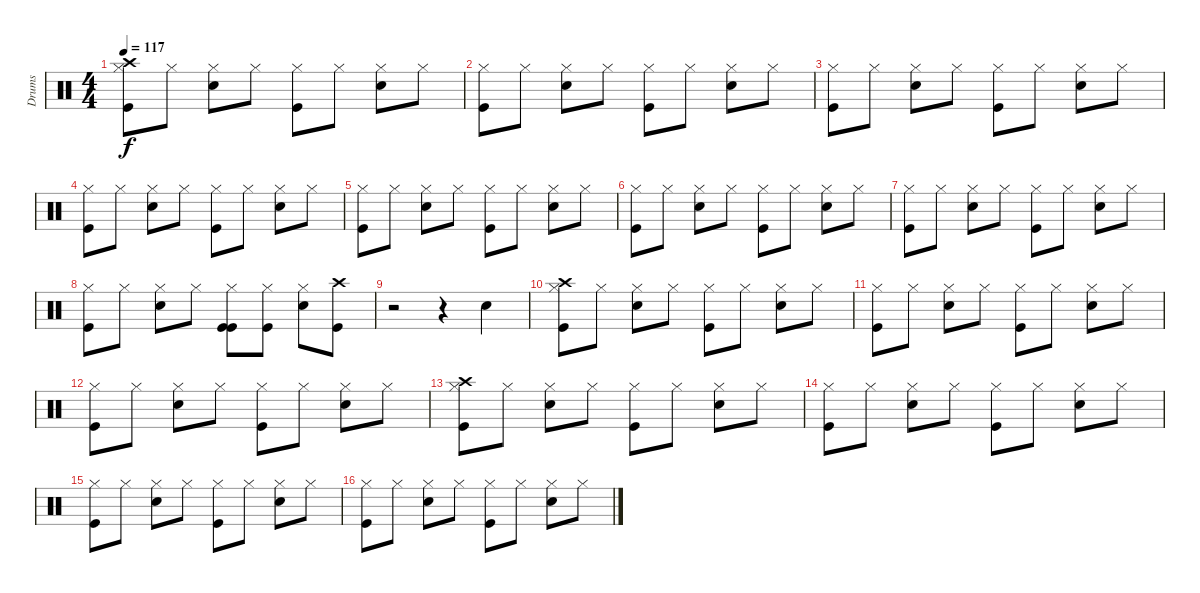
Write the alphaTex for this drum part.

\track ("Drums" "Drums") {instrument percussion}
\staff {score}
\articulation defaults
\ts (4 4)
\tempo 117
\clef neutral
\ks c
("Kick (hit)" "Hi-Hat (closed)" "Crash high (hit)").8{dy f} "Hi-Hat (closed)".8 ("Hi-Hat (closed)" "Snare (hit) 2").8 "Hi-Hat (closed)".8 ("Kick (hit)" "Hi-Hat (closed)").8 "Hi-Hat (closed)".8 ("Hi-Hat (closed)" "Snare (hit) 2").8 "Hi-Hat (closed)".8 |
("Kick (hit)" "Hi-Hat (closed)").8 "Hi-Hat (closed)".8 ("Hi-Hat (closed)" "Snare (hit) 2").8 "Hi-Hat (closed)".8 ("Kick (hit)" "Hi-Hat (closed)").8 "Hi-Hat (closed)".8 ("Hi-Hat (closed)" "Snare (hit) 2").8 "Hi-Hat (closed)".8 |
("Kick (hit)" "Hi-Hat (closed)").8 "Hi-Hat (closed)".8 ("Hi-Hat (closed)" "Snare (hit) 2").8 "Hi-Hat (closed)".8 ("Kick (hit)" "Hi-Hat (closed)").8 "Hi-Hat (closed)".8 ("Hi-Hat (closed)" "Snare (hit) 2").8 "Hi-Hat (closed)".8 |
("Kick (hit)" "Hi-Hat (closed)").8 "Hi-Hat (closed)".8 ("Hi-Hat (closed)" "Snare (hit) 2").8 "Hi-Hat (closed)".8 ("Kick (hit)" "Hi-Hat (closed)").8 "Hi-Hat (closed)".8 ("Hi-Hat (closed)" "Snare (hit) 2").8 "Hi-Hat (closed)".8 |
("Kick (hit)" "Hi-Hat (closed)").8 "Hi-Hat (closed)".8 ("Hi-Hat (closed)" "Snare (hit) 2").8 "Hi-Hat (closed)".8 ("Kick (hit)" "Hi-Hat (closed)").8 "Hi-Hat (closed)".8 ("Hi-Hat (closed)" "Snare (hit) 2").8 "Hi-Hat (closed)".8 |
("Kick (hit)" "Hi-Hat (closed)").8 "Hi-Hat (closed)".8 ("Hi-Hat (closed)" "Snare (hit) 2").8 "Hi-Hat (closed)".8 ("Kick (hit)" "Hi-Hat (closed)").8 "Hi-Hat (closed)".8 ("Hi-Hat (closed)" "Snare (hit) 2").8 "Hi-Hat (closed)".8 |
("Kick (hit)" "Hi-Hat (closed)").8 "Hi-Hat (closed)".8 ("Hi-Hat (closed)" "Snare (hit) 2").8 "Hi-Hat (closed)".8 ("Kick (hit)" "Hi-Hat (closed)").8 "Hi-Hat (closed)".8 ("Hi-Hat (closed)" "Snare (hit) 2").8 "Hi-Hat (closed)".8 |
("Kick (hit)" "Hi-Hat (closed)").8 "Hi-Hat (closed)".8 ("Hi-Hat (closed)" "Snare (hit) 2").8 "Hi-Hat (closed)".8 ("Kick (hit)" "Kick (hit)" "Hi-Hat (closed)").8 ("Kick (hit)" "Hi-Hat (closed)").8 ("Hi-Hat (closed)" "Snare (hit) 2").8 ("Kick (hit)" "Crash high (hit)").8 |
r.2 r.4 "Snare (hit) 2".4 |
("Kick (hit)" "Hi-Hat (closed)" "Crash high (hit)").8 "Hi-Hat (closed)".8 ("Hi-Hat (closed)" "Snare (hit) 2").8 "Hi-Hat (closed)".8 ("Kick (hit)" "Hi-Hat (closed)").8 "Hi-Hat (closed)".8 ("Hi-Hat (closed)" "Snare (hit) 2").8 "Hi-Hat (closed)".8 |
("Kick (hit)" "Hi-Hat (closed)").8 "Hi-Hat (closed)".8 ("Hi-Hat (closed)" "Snare (hit) 2").8 "Hi-Hat (closed)".8 ("Kick (hit)" "Hi-Hat (closed)").8 "Hi-Hat (closed)".8 ("Hi-Hat (closed)" "Snare (hit) 2").8 "Hi-Hat (closed)".8 |
("Kick (hit)" "Hi-Hat (closed)").8 "Hi-Hat (closed)".8 ("Hi-Hat (closed)" "Snare (hit) 2").8 "Hi-Hat (closed)".8 ("Kick (hit)" "Hi-Hat (closed)").8 "Hi-Hat (closed)".8 ("Hi-Hat (closed)" "Snare (hit) 2").8 "Hi-Hat (closed)".8 |
("Kick (hit)" "Hi-Hat (closed)" "Crash high (hit)").8 "Hi-Hat (closed)".8 ("Hi-Hat (closed)" "Snare (hit) 2").8 "Hi-Hat (closed)".8 ("Kick (hit)" "Hi-Hat (closed)").8 "Hi-Hat (closed)".8 ("Hi-Hat (closed)" "Snare (hit) 2").8 "Hi-Hat (closed)".8 |
("Kick (hit)" "Hi-Hat (closed)").8 "Hi-Hat (closed)".8 ("Hi-Hat (closed)" "Snare (hit) 2").8 "Hi-Hat (closed)".8 ("Kick (hit)" "Hi-Hat (closed)").8 "Hi-Hat (closed)".8 ("Hi-Hat (closed)" "Snare (hit) 2").8 "Hi-Hat (closed)".8 |
("Kick (hit)" "Hi-Hat (closed)").8 "Hi-Hat (closed)".8 ("Hi-Hat (closed)" "Snare (hit) 2").8 "Hi-Hat (closed)".8 ("Kick (hit)" "Hi-Hat (closed)").8 "Hi-Hat (closed)".8 ("Hi-Hat (closed)" "Snare (hit) 2").8 "Hi-Hat (closed)".8 |
("Kick (hit)" "Hi-Hat (closed)").8 "Hi-Hat (closed)".8 ("Hi-Hat (closed)" "Snare (hit) 2").8 "Hi-Hat (closed)".8 ("Kick (hit)" "Hi-Hat (closed)").8 "Hi-Hat (closed)".8 ("Hi-Hat (closed)" "Snare (hit) 2").8 "Hi-Hat (closed)".8
